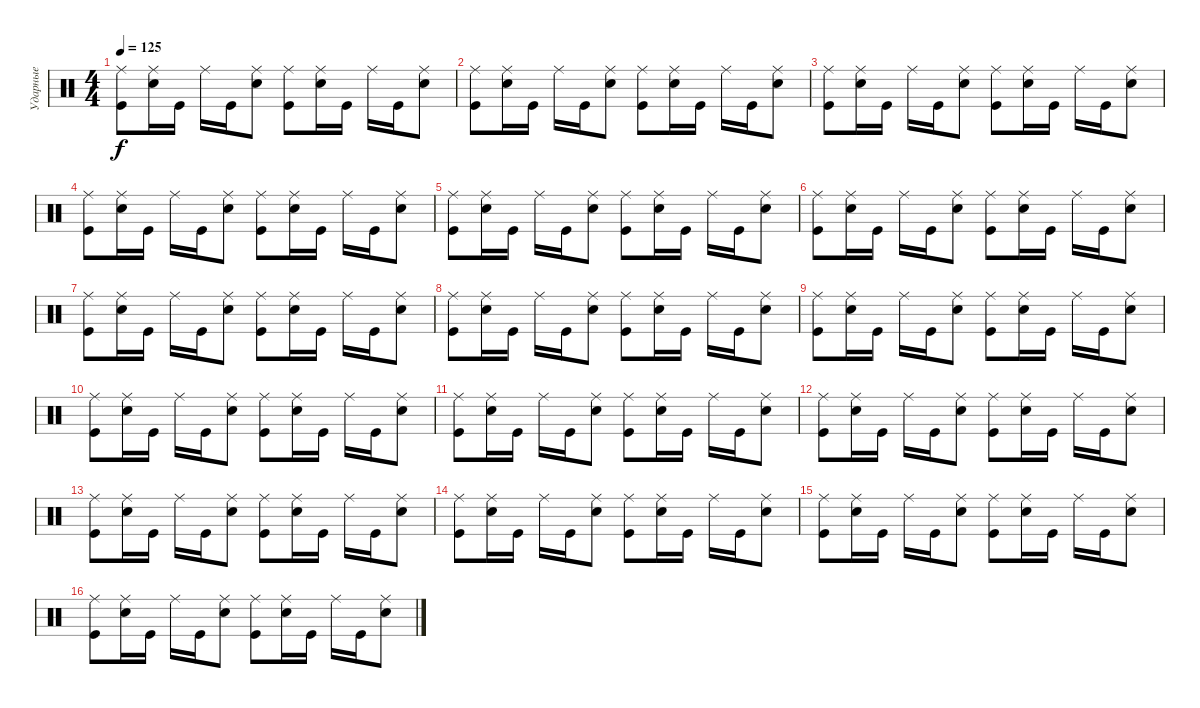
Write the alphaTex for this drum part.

\track ("Ударные" "Ударные") {instrument percussion}
\staff {score}
\articulation defaults
\ts (4 4)
\tempo 125
\clef neutral
\ks c
("Ride (middle)" "Kick (hit)").8{dy f} ("Ride (middle)" "Electric Snare (hit)").16 "Kick (hit)".16 "Ride (middle)".16 "Kick (hit)".16 ("Ride (middle)" "Electric Snare (hit)").8 ("Ride (middle)" "Kick (hit)").8 ("Ride (middle)" "Electric Snare (hit)").16 "Kick (hit)".16 "Ride (middle)".16 "Kick (hit)".16 ("Ride (middle)" "Electric Snare (hit)").8 |
("Ride (middle)" "Kick (hit)").8 ("Ride (middle)" "Electric Snare (hit)").16 "Kick (hit)".16 "Ride (middle)".16 "Kick (hit)".16 ("Ride (middle)" "Electric Snare (hit)").8 ("Ride (middle)" "Kick (hit)").8 ("Ride (middle)" "Electric Snare (hit)").16 "Kick (hit)".16 "Ride (middle)".16 "Kick (hit)".16 ("Ride (middle)" "Electric Snare (hit)").8 |
("Ride (middle)" "Kick (hit)").8 ("Ride (middle)" "Electric Snare (hit)").16 "Kick (hit)".16 "Ride (middle)".16 "Kick (hit)".16 ("Ride (middle)" "Electric Snare (hit)").8 ("Ride (middle)" "Kick (hit)").8 ("Ride (middle)" "Electric Snare (hit)").16 "Kick (hit)".16 "Ride (middle)".16 "Kick (hit)".16 ("Ride (middle)" "Electric Snare (hit)").8 |
("Ride (middle)" "Kick (hit)").8 ("Ride (middle)" "Electric Snare (hit)").16 "Kick (hit)".16 "Ride (middle)".16 "Kick (hit)".16 ("Ride (middle)" "Electric Snare (hit)").8 ("Ride (middle)" "Kick (hit)").8 ("Ride (middle)" "Electric Snare (hit)").16 "Kick (hit)".16 "Ride (middle)".16 "Kick (hit)".16 ("Ride (middle)" "Electric Snare (hit)").8 |
("Ride (middle)" "Kick (hit)").8 ("Ride (middle)" "Electric Snare (hit)").16 "Kick (hit)".16 "Ride (middle)".16 "Kick (hit)".16 ("Ride (middle)" "Electric Snare (hit)").8 ("Ride (middle)" "Kick (hit)").8 ("Ride (middle)" "Electric Snare (hit)").16 "Kick (hit)".16 "Ride (middle)".16 "Kick (hit)".16 ("Ride (middle)" "Electric Snare (hit)").8 |
("Ride (middle)" "Kick (hit)").8 ("Ride (middle)" "Electric Snare (hit)").16 "Kick (hit)".16 "Ride (middle)".16 "Kick (hit)".16 ("Ride (middle)" "Electric Snare (hit)").8 ("Ride (middle)" "Kick (hit)").8 ("Ride (middle)" "Electric Snare (hit)").16 "Kick (hit)".16 "Ride (middle)".16 "Kick (hit)".16 ("Ride (middle)" "Electric Snare (hit)").8 |
("Ride (middle)" "Kick (hit)").8 ("Ride (middle)" "Electric Snare (hit)").16 "Kick (hit)".16 "Ride (middle)".16 "Kick (hit)".16 ("Ride (middle)" "Electric Snare (hit)").8 ("Ride (middle)" "Kick (hit)").8 ("Ride (middle)" "Electric Snare (hit)").16 "Kick (hit)".16 "Ride (middle)".16 "Kick (hit)".16 ("Ride (middle)" "Electric Snare (hit)").8 |
("Ride (middle)" "Kick (hit)").8 ("Ride (middle)" "Electric Snare (hit)").16 "Kick (hit)".16 "Ride (middle)".16 "Kick (hit)".16 ("Ride (middle)" "Electric Snare (hit)").8 ("Ride (middle)" "Kick (hit)").8 ("Ride (middle)" "Electric Snare (hit)").16 "Kick (hit)".16 "Ride (middle)".16 "Kick (hit)".16 ("Ride (middle)" "Electric Snare (hit)").8 |
("Ride (middle)" "Kick (hit)").8 ("Ride (middle)" "Electric Snare (hit)").16 "Kick (hit)".16 "Ride (middle)".16 "Kick (hit)".16 ("Ride (middle)" "Electric Snare (hit)").8 ("Ride (middle)" "Kick (hit)").8 ("Ride (middle)" "Electric Snare (hit)").16 "Kick (hit)".16 "Ride (middle)".16 "Kick (hit)".16 ("Ride (middle)" "Electric Snare (hit)").8 |
("Ride (middle)" "Kick (hit)").8 ("Ride (middle)" "Electric Snare (hit)").16 "Kick (hit)".16 "Ride (middle)".16 "Kick (hit)".16 ("Ride (middle)" "Electric Snare (hit)").8 ("Ride (middle)" "Kick (hit)").8 ("Ride (middle)" "Electric Snare (hit)").16 "Kick (hit)".16 "Ride (middle)".16 "Kick (hit)".16 ("Ride (middle)" "Electric Snare (hit)").8 |
("Ride (middle)" "Kick (hit)").8 ("Ride (middle)" "Electric Snare (hit)").16 "Kick (hit)".16 "Ride (middle)".16 "Kick (hit)".16 ("Ride (middle)" "Electric Snare (hit)").8 ("Ride (middle)" "Kick (hit)").8 ("Ride (middle)" "Electric Snare (hit)").16 "Kick (hit)".16 "Ride (middle)".16 "Kick (hit)".16 ("Ride (middle)" "Electric Snare (hit)").8 |
("Ride (middle)" "Kick (hit)").8 ("Ride (middle)" "Electric Snare (hit)").16 "Kick (hit)".16 "Ride (middle)".16 "Kick (hit)".16 ("Ride (middle)" "Electric Snare (hit)").8 ("Ride (middle)" "Kick (hit)").8 ("Ride (middle)" "Electric Snare (hit)").16 "Kick (hit)".16 "Ride (middle)".16 "Kick (hit)".16 ("Ride (middle)" "Electric Snare (hit)").8 |
("Ride (middle)" "Kick (hit)").8 ("Ride (middle)" "Electric Snare (hit)").16 "Kick (hit)".16 "Ride (middle)".16 "Kick (hit)".16 ("Ride (middle)" "Electric Snare (hit)").8 ("Ride (middle)" "Kick (hit)").8 ("Ride (middle)" "Electric Snare (hit)").16 "Kick (hit)".16 "Ride (middle)".16 "Kick (hit)".16 ("Ride (middle)" "Electric Snare (hit)").8 |
("Ride (middle)" "Kick (hit)").8 ("Ride (middle)" "Electric Snare (hit)").16 "Kick (hit)".16 "Ride (middle)".16 "Kick (hit)".16 ("Ride (middle)" "Electric Snare (hit)").8 ("Ride (middle)" "Kick (hit)").8 ("Ride (middle)" "Electric Snare (hit)").16 "Kick (hit)".16 "Ride (middle)".16 "Kick (hit)".16 ("Ride (middle)" "Electric Snare (hit)").8 |
("Ride (middle)" "Kick (hit)").8 ("Ride (middle)" "Electric Snare (hit)").16 "Kick (hit)".16 "Ride (middle)".16 "Kick (hit)".16 ("Ride (middle)" "Electric Snare (hit)").8 ("Ride (middle)" "Kick (hit)").8 ("Ride (middle)" "Electric Snare (hit)").16 "Kick (hit)".16 "Ride (middle)".16 "Kick (hit)".16 ("Ride (middle)" "Electric Snare (hit)").8 |
("Ride (middle)" "Kick (hit)").8 ("Ride (middle)" "Electric Snare (hit)").16 "Kick (hit)".16 "Ride (middle)".16 "Kick (hit)".16 ("Ride (middle)" "Electric Snare (hit)").8 ("Ride (middle)" "Kick (hit)").8 ("Ride (middle)" "Electric Snare (hit)").16 "Kick (hit)".16 "Ride (middle)".16 "Kick (hit)".16 ("Ride (middle)" "Electric Snare (hit)").8
